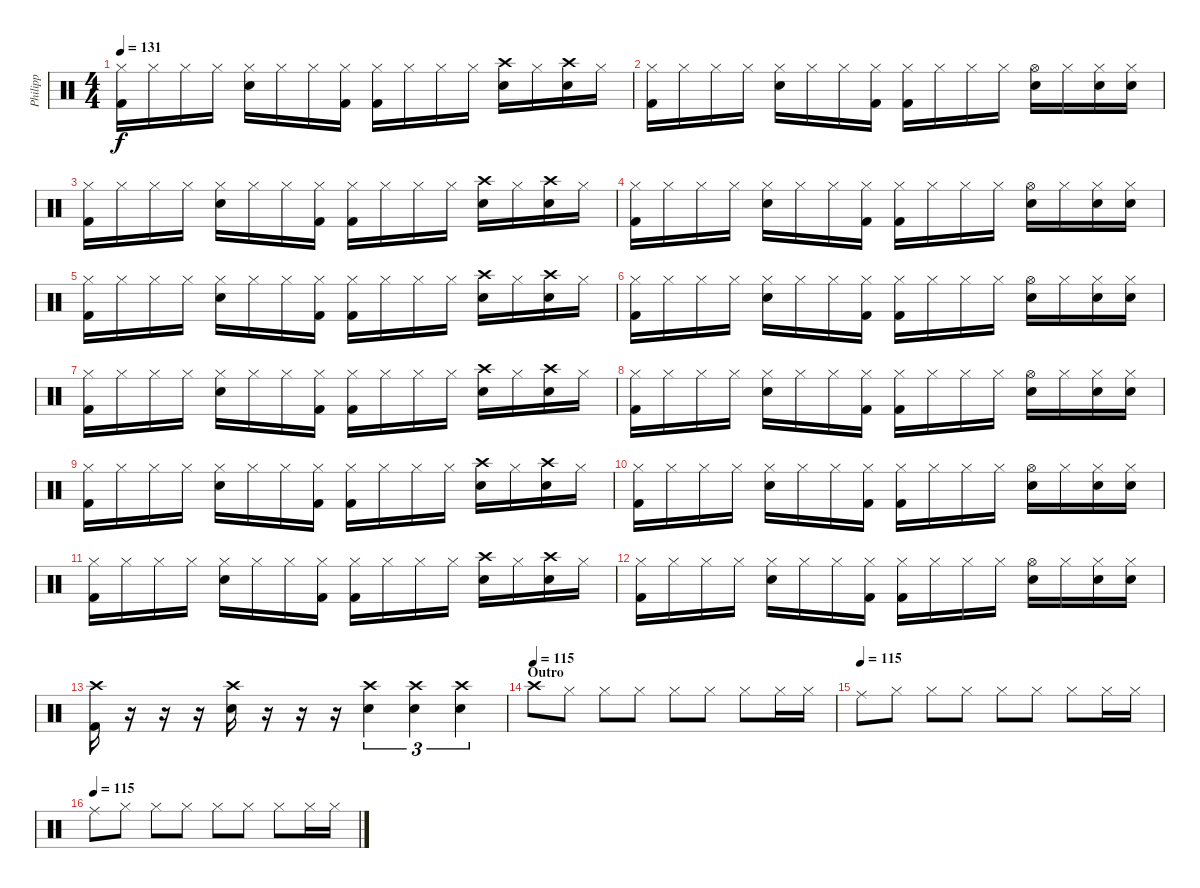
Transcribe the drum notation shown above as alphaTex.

\track ("Philipp" "Philipp") {instrument percussion}
\staff {score}
\articulation defaults
\ts (4 4)
\tempo 131
\clef neutral
\ks c
("Hi-Hat (closed)" "Kick (hit) 2").16{dy f} "Hi-Hat (closed)".16 "Hi-Hat (closed)".16 "Hi-Hat (closed)".16 ("Hi-Hat (closed)" "Electric Snare (hit)").16 "Hi-Hat (closed)".16 "Hi-Hat (closed)".16 ("Hi-Hat (closed)" "Kick (hit) 2").16 ("Hi-Hat (closed)" "Kick (hit) 2").16 "Hi-Hat (closed)".16 "Hi-Hat (closed)".16 "Hi-Hat (closed)".16 ("Crash high (hit)" "Electric Snare (hit)").16 "Hi-Hat (closed)".16 ("Crash high (hit)" "Electric Snare (hit)").16 "Hi-Hat (closed)".16 |
("Hi-Hat (closed)" "Kick (hit) 2").16 "Hi-Hat (closed)".16 "Hi-Hat (closed)".16 "Hi-Hat (closed)".16 ("Hi-Hat (closed)" "Electric Snare (hit)").16 "Hi-Hat (closed)".16 "Hi-Hat (closed)".16 ("Hi-Hat (closed)" "Kick (hit) 2").16 ("Hi-Hat (closed)" "Kick (hit) 2").16 "Hi-Hat (closed)".16 "Hi-Hat (closed)".16 "Hi-Hat (closed)".16 ("Hi-Hat (open)" "Electric Snare (hit)").16 "Hi-Hat (closed)".16 ("Hi-Hat (closed)" "Electric Snare (hit)").16 ("Hi-Hat (closed)" "Electric Snare (hit)").16 |
("Hi-Hat (closed)" "Kick (hit) 2").16 "Hi-Hat (closed)".16 "Hi-Hat (closed)".16 "Hi-Hat (closed)".16 ("Hi-Hat (closed)" "Electric Snare (hit)").16 "Hi-Hat (closed)".16 "Hi-Hat (closed)".16 ("Hi-Hat (closed)" "Kick (hit) 2").16 ("Hi-Hat (closed)" "Kick (hit) 2").16 "Hi-Hat (closed)".16 "Hi-Hat (closed)".16 "Hi-Hat (closed)".16 ("Crash high (hit)" "Electric Snare (hit)").16 "Hi-Hat (closed)".16 ("Crash high (hit)" "Electric Snare (hit)").16 "Hi-Hat (closed)".16 |
("Hi-Hat (closed)" "Kick (hit) 2").16 "Hi-Hat (closed)".16 "Hi-Hat (closed)".16 "Hi-Hat (closed)".16 ("Hi-Hat (closed)" "Electric Snare (hit)").16 "Hi-Hat (closed)".16 "Hi-Hat (closed)".16 ("Hi-Hat (closed)" "Kick (hit) 2").16 ("Hi-Hat (closed)" "Kick (hit) 2").16 "Hi-Hat (closed)".16 "Hi-Hat (closed)".16 "Hi-Hat (closed)".16 ("Hi-Hat (open)" "Electric Snare (hit)").16 "Hi-Hat (closed)".16 ("Hi-Hat (closed)" "Electric Snare (hit)").16 ("Hi-Hat (closed)" "Electric Snare (hit)").16 |
("Hi-Hat (closed)" "Kick (hit) 2").16 "Hi-Hat (closed)".16 "Hi-Hat (closed)".16 "Hi-Hat (closed)".16 ("Hi-Hat (closed)" "Electric Snare (hit)").16 "Hi-Hat (closed)".16 "Hi-Hat (closed)".16 ("Hi-Hat (closed)" "Kick (hit) 2").16 ("Hi-Hat (closed)" "Kick (hit) 2").16 "Hi-Hat (closed)".16 "Hi-Hat (closed)".16 "Hi-Hat (closed)".16 ("Crash high (hit)" "Electric Snare (hit)").16 "Hi-Hat (closed)".16 ("Crash high (hit)" "Electric Snare (hit)").16 "Hi-Hat (closed)".16 |
("Hi-Hat (closed)" "Kick (hit) 2").16 "Hi-Hat (closed)".16 "Hi-Hat (closed)".16 "Hi-Hat (closed)".16 ("Hi-Hat (closed)" "Electric Snare (hit)").16 "Hi-Hat (closed)".16 "Hi-Hat (closed)".16 ("Hi-Hat (closed)" "Kick (hit) 2").16 ("Hi-Hat (closed)" "Kick (hit) 2").16 "Hi-Hat (closed)".16 "Hi-Hat (closed)".16 "Hi-Hat (closed)".16 ("Hi-Hat (open)" "Electric Snare (hit)").16 "Hi-Hat (closed)".16 ("Hi-Hat (closed)" "Electric Snare (hit)").16 ("Hi-Hat (closed)" "Electric Snare (hit)").16 |
("Hi-Hat (closed)" "Kick (hit) 2").16 "Hi-Hat (closed)".16 "Hi-Hat (closed)".16 "Hi-Hat (closed)".16 ("Hi-Hat (closed)" "Electric Snare (hit)").16 "Hi-Hat (closed)".16 "Hi-Hat (closed)".16 ("Hi-Hat (closed)" "Kick (hit) 2").16 ("Hi-Hat (closed)" "Kick (hit) 2").16 "Hi-Hat (closed)".16 "Hi-Hat (closed)".16 "Hi-Hat (closed)".16 ("Crash high (hit)" "Electric Snare (hit)").16 "Hi-Hat (closed)".16 ("Crash high (hit)" "Electric Snare (hit)").16 "Hi-Hat (closed)".16 |
("Hi-Hat (closed)" "Kick (hit) 2").16 "Hi-Hat (closed)".16 "Hi-Hat (closed)".16 "Hi-Hat (closed)".16 ("Hi-Hat (closed)" "Electric Snare (hit)").16 "Hi-Hat (closed)".16 "Hi-Hat (closed)".16 ("Hi-Hat (closed)" "Kick (hit) 2").16 ("Hi-Hat (closed)" "Kick (hit) 2").16 "Hi-Hat (closed)".16 "Hi-Hat (closed)".16 "Hi-Hat (closed)".16 ("Hi-Hat (open)" "Electric Snare (hit)").16 "Hi-Hat (closed)".16 ("Hi-Hat (closed)" "Electric Snare (hit)").16 ("Hi-Hat (closed)" "Electric Snare (hit)").16 |
("Hi-Hat (closed)" "Kick (hit) 2").16 "Hi-Hat (closed)".16 "Hi-Hat (closed)".16 "Hi-Hat (closed)".16 ("Hi-Hat (closed)" "Electric Snare (hit)").16 "Hi-Hat (closed)".16 "Hi-Hat (closed)".16 ("Hi-Hat (closed)" "Kick (hit) 2").16 ("Hi-Hat (closed)" "Kick (hit) 2").16 "Hi-Hat (closed)".16 "Hi-Hat (closed)".16 "Hi-Hat (closed)".16 ("Crash high (hit)" "Electric Snare (hit)").16 "Hi-Hat (closed)".16 ("Crash high (hit)" "Electric Snare (hit)").16 "Hi-Hat (closed)".16 |
("Hi-Hat (closed)" "Kick (hit) 2").16 "Hi-Hat (closed)".16 "Hi-Hat (closed)".16 "Hi-Hat (closed)".16 ("Hi-Hat (closed)" "Electric Snare (hit)").16 "Hi-Hat (closed)".16 "Hi-Hat (closed)".16 ("Hi-Hat (closed)" "Kick (hit) 2").16 ("Hi-Hat (closed)" "Kick (hit) 2").16 "Hi-Hat (closed)".16 "Hi-Hat (closed)".16 "Hi-Hat (closed)".16 ("Hi-Hat (open)" "Electric Snare (hit)").16 "Hi-Hat (closed)".16 ("Hi-Hat (closed)" "Electric Snare (hit)").16 ("Hi-Hat (closed)" "Electric Snare (hit)").16 |
("Hi-Hat (closed)" "Kick (hit) 2").16 "Hi-Hat (closed)".16 "Hi-Hat (closed)".16 "Hi-Hat (closed)".16 ("Hi-Hat (closed)" "Electric Snare (hit)").16 "Hi-Hat (closed)".16 "Hi-Hat (closed)".16 ("Hi-Hat (closed)" "Kick (hit) 2").16 ("Hi-Hat (closed)" "Kick (hit) 2").16 "Hi-Hat (closed)".16 "Hi-Hat (closed)".16 "Hi-Hat (closed)".16 ("Crash high (hit)" "Electric Snare (hit)").16 "Hi-Hat (closed)".16 ("Crash high (hit)" "Electric Snare (hit)").16 "Hi-Hat (closed)".16 |
("Hi-Hat (closed)" "Kick (hit) 2").16 "Hi-Hat (closed)".16 "Hi-Hat (closed)".16 "Hi-Hat (closed)".16 ("Hi-Hat (closed)" "Electric Snare (hit)").16 "Hi-Hat (closed)".16 "Hi-Hat (closed)".16 ("Hi-Hat (closed)" "Kick (hit) 2").16 ("Hi-Hat (closed)" "Kick (hit) 2").16 "Hi-Hat (closed)".16 "Hi-Hat (closed)".16 "Hi-Hat (closed)".16 ("Hi-Hat (open)" "Electric Snare (hit)").16 "Hi-Hat (closed)".16 ("Hi-Hat (closed)" "Electric Snare (hit)").16 ("Hi-Hat (closed)" "Electric Snare (hit)").16 |
("Crash high (hit)" "Kick (hit) 2").16 r.16 r.16 r.16 ("Crash high (hit)" "Electric Snare (hit)").16 r.16 r.16 r.16 ("Crash high (hit)" "Electric Snare (hit)").4{tu (3 2)} ("Crash high (hit)" "Electric Snare (hit)").4{tu (3 2)} ("Crash high (hit)" "Electric Snare (hit)").4{tu (3 2)} |
\section ("" "Outro")
\tempo (115)
"Crash high (hit)".8 "Hi-Hat (closed)".8 "Hi-Hat (closed)".8 "Hi-Hat (closed)".8 "Hi-Hat (closed)".8 "Hi-Hat (closed)".8 "Hi-Hat (closed)".8 "Hi-Hat (closed)".16 "Hi-Hat (closed)".16 |
\tempo (115)
"Ride (middle)".8 "Hi-Hat (closed)".8 "Hi-Hat (closed)".8 "Hi-Hat (closed)".8 "Hi-Hat (closed)".8 "Hi-Hat (closed)".8 "Hi-Hat (closed)".8 "Hi-Hat (closed)".16 "Hi-Hat (closed)".16 |
\tempo (115)
"Ride (middle)".8 "Hi-Hat (closed)".8 "Hi-Hat (closed)".8 "Hi-Hat (closed)".8 "Hi-Hat (closed)".8 "Hi-Hat (closed)".8 "Hi-Hat (closed)".8 "Hi-Hat (closed)".16 "Hi-Hat (closed)".16
